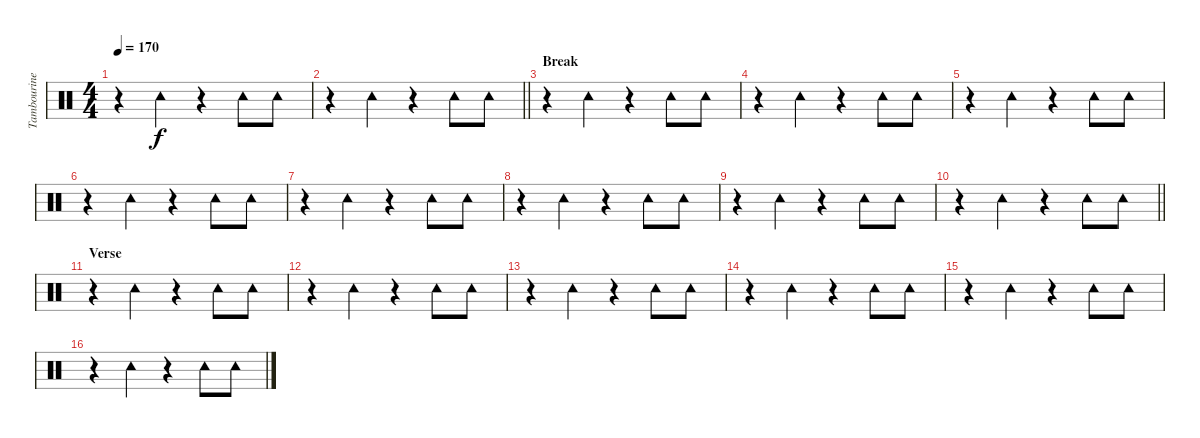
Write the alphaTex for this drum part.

\track ("Tambourine" "Tambourine") {instrument percussion}
\staff {score}
\articulation defaults
\ts (4 4)
\tempo 170
\clef neutral
\ks c
r.4{dy f} "Tambourine (hit)".4 r.4 "Tambourine (hit)".8 "Tambourine (hit)".8 |
\barLineRight lightlight
r.4 "Tambourine (hit)".4 r.4 "Tambourine (hit)".8 "Tambourine (hit)".8 |
\section ("" "Break")
r.4 "Tambourine (hit)".4 r.4 "Tambourine (hit)".8 "Tambourine (hit)".8 |
r.4 "Tambourine (hit)".4 r.4 "Tambourine (hit)".8 "Tambourine (hit)".8 |
r.4 "Tambourine (hit)".4 r.4 "Tambourine (hit)".8 "Tambourine (hit)".8 |
r.4 "Tambourine (hit)".4 r.4 "Tambourine (hit)".8 "Tambourine (hit)".8 |
r.4 "Tambourine (hit)".4 r.4 "Tambourine (hit)".8 "Tambourine (hit)".8 |
r.4 "Tambourine (hit)".4 r.4 "Tambourine (hit)".8 "Tambourine (hit)".8 |
r.4 "Tambourine (hit)".4 r.4 "Tambourine (hit)".8 "Tambourine (hit)".8 |
\barLineRight lightlight
r.4 "Tambourine (hit)".4 r.4 "Tambourine (hit)".8 "Tambourine (hit)".8 |
\section ("" "Verse")
r.4 "Tambourine (hit)".4 r.4 "Tambourine (hit)".8 "Tambourine (hit)".8 |
r.4 "Tambourine (hit)".4 r.4 "Tambourine (hit)".8 "Tambourine (hit)".8 |
r.4 "Tambourine (hit)".4 r.4 "Tambourine (hit)".8 "Tambourine (hit)".8 |
r.4 "Tambourine (hit)".4 r.4 "Tambourine (hit)".8 "Tambourine (hit)".8 |
r.4 "Tambourine (hit)".4 r.4 "Tambourine (hit)".8 "Tambourine (hit)".8 |
r.4 "Tambourine (hit)".4 r.4 "Tambourine (hit)".8 "Tambourine (hit)".8
